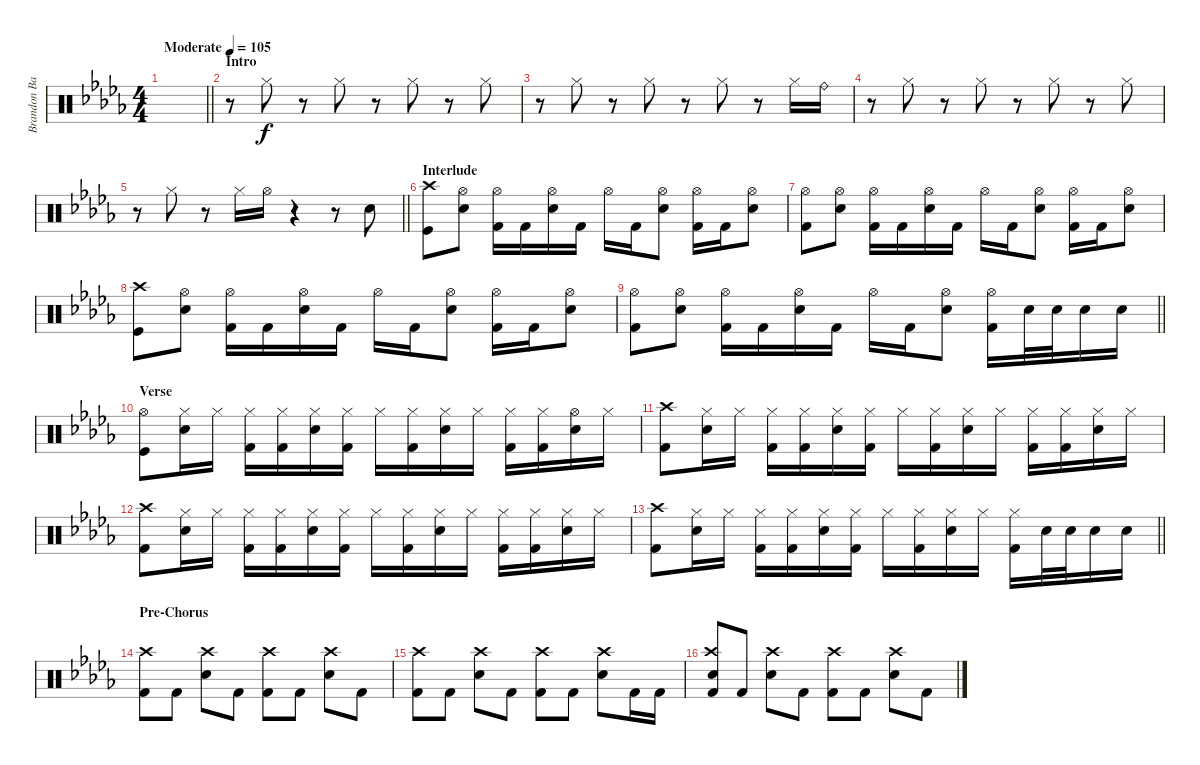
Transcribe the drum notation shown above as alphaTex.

\track ("Brandon Barnes - Drums" "Brandon Ba") {instrument percussion}
\staff {score}
\articulation defaults
\ts (4 4)
\tempo (105 "Moderate")
\clef neutral
\barLineRight lightlight
\ks db
|
\section ("" "Intro")
r.8 "Hi-Hat (closed)".8 r.8 "Hi-Hat (closed)".8 r.8 "Hi-Hat (closed)".8 r.8 "Hi-Hat (closed)".8 |
r.8 "Hi-Hat (closed)".8 r.8 "Hi-Hat (closed)".8 r.8 "Hi-Hat (closed)".8 r.8 "Hi-Hat (closed)".16 "Ride (bell)".16{balance 12} |
r.8{balance 8} "Hi-Hat (closed)".8 r.8 "Hi-Hat (closed)".8 r.8 "Hi-Hat (closed)".8 r.8 "Hi-Hat (closed)".8 |
\barLineRight lightlight
r.8 "Hi-Hat (closed)".8 r.8 "Hi-Hat (closed)".16 "Hi-Hat (open)".16 r.4 r.8 "Snare (hit) 2".8 |
\section ("" "Interlude")
("Kick (hit)" "Crash high (hit)").8 ("Snare (hit) 2" "Hi-Hat (open)").8 ("Kick (hit) 2" "Hi-Hat (open)").16 "Kick (hit) 2".16 ("Snare (hit) 2" "Hi-Hat (open)").16 "Kick (hit) 2".16 "Hi-Hat (open)".16 "Kick (hit) 2".16 ("Snare (hit) 2" "Hi-Hat (open)").8 ("Hi-Hat (open)" "Kick (hit) 2").16 "Kick (hit) 2".16 ("Snare (hit) 2" "Hi-Hat (open)").8 |
("Kick (hit) 2" "Hi-Hat (open)").8 ("Snare (hit) 2" "Hi-Hat (open)").8 ("Kick (hit) 2" "Hi-Hat (open)").16 "Kick (hit) 2".16 ("Snare (hit) 2" "Hi-Hat (open)").16 "Kick (hit) 2".16 "Hi-Hat (open)".16 "Kick (hit) 2".16 ("Snare (hit) 2" "Hi-Hat (open)").8 ("Hi-Hat (open)" "Kick (hit) 2").16 "Kick (hit) 2".16 ("Snare (hit) 2" "Hi-Hat (open)").8 |
("Kick (hit)" "Crash high (hit)").8 ("Snare (hit) 2" "Hi-Hat (open)").8 ("Kick (hit) 2" "Hi-Hat (open)").16 "Kick (hit) 2".16 ("Snare (hit) 2" "Hi-Hat (open)").16 "Kick (hit) 2".16 "Hi-Hat (open)".16 "Kick (hit) 2".16 ("Snare (hit) 2" "Hi-Hat (open)").8 ("Hi-Hat (open)" "Kick (hit) 2").16 "Kick (hit) 2".16 ("Snare (hit) 2" "Hi-Hat (open)").8 |
\barLineRight lightlight
("Kick (hit) 2" "Hi-Hat (open)").8 ("Snare (hit) 2" "Hi-Hat (open)").8 ("Kick (hit) 2" "Hi-Hat (open)").16 "Kick (hit) 2".16 ("Snare (hit) 2" "Hi-Hat (open)").16 "Kick (hit) 2".16 "Hi-Hat (open)".16 "Kick (hit) 2".16 ("Snare (hit) 2" "Hi-Hat (open)").8 ("Hi-Hat (open)" "Kick (hit) 2").16 "Snare (hit) 2".32 "Snare (hit) 2".32 "Snare (hit) 2".16 "Snare (hit) 2".16 |
\section ("" "Verse")
("Kick (hit)" "Hi-Hat (open)").8 ("Snare (hit) 2" "Hi-Hat (closed)").16 "Hi-Hat (closed)".16 ("Kick (hit) 2" "Hi-Hat (closed)").16 ("Kick (hit) 2" "Hi-Hat (closed)").16 ("Snare (hit) 2" "Hi-Hat (closed)").16 ("Hi-Hat (closed)" "Kick (hit) 2").16 "Hi-Hat (closed)".16 ("Kick (hit) 2" "Hi-Hat (closed)").16 ("Snare (hit) 2" "Hi-Hat (closed)").16 "Hi-Hat (closed)".16 ("Hi-Hat (closed)" "Kick (hit) 2").16 ("Kick (hit) 2" "Hi-Hat (closed)").16 ("Snare (hit) 2" "Hi-Hat (open)").16 "Hi-Hat (closed)".16 |
("Crash high (hit)" "Kick (hit) 2").8 ("Snare (hit) 2" "Hi-Hat (closed)").16 "Hi-Hat (closed)".16 ("Kick (hit) 2" "Hi-Hat (closed)").16 ("Kick (hit) 2" "Hi-Hat (closed)").16 ("Snare (hit) 2" "Hi-Hat (closed)").16 ("Hi-Hat (closed)" "Kick (hit) 2").16 "Hi-Hat (closed)".16 ("Kick (hit) 2" "Hi-Hat (closed)").16 ("Snare (hit) 2" "Hi-Hat (closed)").16 "Hi-Hat (closed)".16 ("Hi-Hat (closed)" "Kick (hit) 2").16 ("Kick (hit) 2" "Hi-Hat (closed)").16 ("Snare (hit) 2" "Hi-Hat (closed)").16 "Hi-Hat (closed)".16 |
("Crash high (hit)" "Kick (hit) 2").8 ("Snare (hit) 2" "Hi-Hat (closed)").16 "Hi-Hat (closed)".16 ("Kick (hit) 2" "Hi-Hat (closed)").16 ("Kick (hit) 2" "Hi-Hat (closed)").16 ("Snare (hit) 2" "Hi-Hat (closed)").16 ("Hi-Hat (closed)" "Kick (hit) 2").16 "Hi-Hat (closed)".16 ("Kick (hit) 2" "Hi-Hat (closed)").16 ("Snare (hit) 2" "Hi-Hat (closed)").16 "Hi-Hat (closed)".16 ("Hi-Hat (closed)" "Kick (hit) 2").16 ("Kick (hit) 2" "Hi-Hat (closed)").16 ("Snare (hit) 2" "Hi-Hat (closed)").16 "Hi-Hat (closed)".16 |
\barLineRight lightlight
("Crash high (hit)" "Kick (hit) 2").8 ("Snare (hit) 2" "Hi-Hat (closed)").16 "Hi-Hat (closed)".16 ("Kick (hit) 2" "Hi-Hat (closed)").16 ("Kick (hit) 2" "Hi-Hat (closed)").16 ("Snare (hit) 2" "Hi-Hat (closed)").16 ("Hi-Hat (closed)" "Kick (hit) 2").16 "Hi-Hat (closed)".16 ("Kick (hit) 2" "Hi-Hat (closed)").16 ("Snare (hit) 2" "Hi-Hat (closed)").16 "Hi-Hat (closed)".16 ("Hi-Hat (closed)" "Kick (hit) 2").16 "Snare (hit) 2".32 "Snare (hit) 2".32 "Snare (hit) 2".16 "Snare (hit) 2".16 |
\section ("" "Pre-Chorus")
("Kick (hit) 2" "Crash high (hit)").8 "Kick (hit) 2".8 ("Snare (hit) 2" "Crash high (hit)").8 "Kick (hit) 2".8 ("Kick (hit) 2" "Crash high (hit)").8 "Kick (hit) 2".8 ("Snare (hit) 2" "Crash high (hit)").8 "Kick (hit) 2".8 |
("Kick (hit) 2" "Crash high (hit)").8 "Kick (hit) 2".8 ("Snare (hit) 2" "Crash high (hit)").8 "Kick (hit) 2".8 ("Kick (hit) 2" "Crash high (hit)").8 "Kick (hit) 2".8 ("Snare (hit) 2" "Crash high (hit)").8 "Kick (hit) 2".16 "Kick (hit) 2".16 |
("Kick (hit) 2" "Crash high (hit)" "Snare (hit) 2").8 "Kick (hit) 2".8 ("Snare (hit) 2" "Crash high (hit)").8 "Kick (hit) 2".8 ("Kick (hit) 2" "Crash high (hit)").8 "Kick (hit) 2".8 ("Snare (hit) 2" "Crash high (hit)").8 "Kick (hit) 2".8
